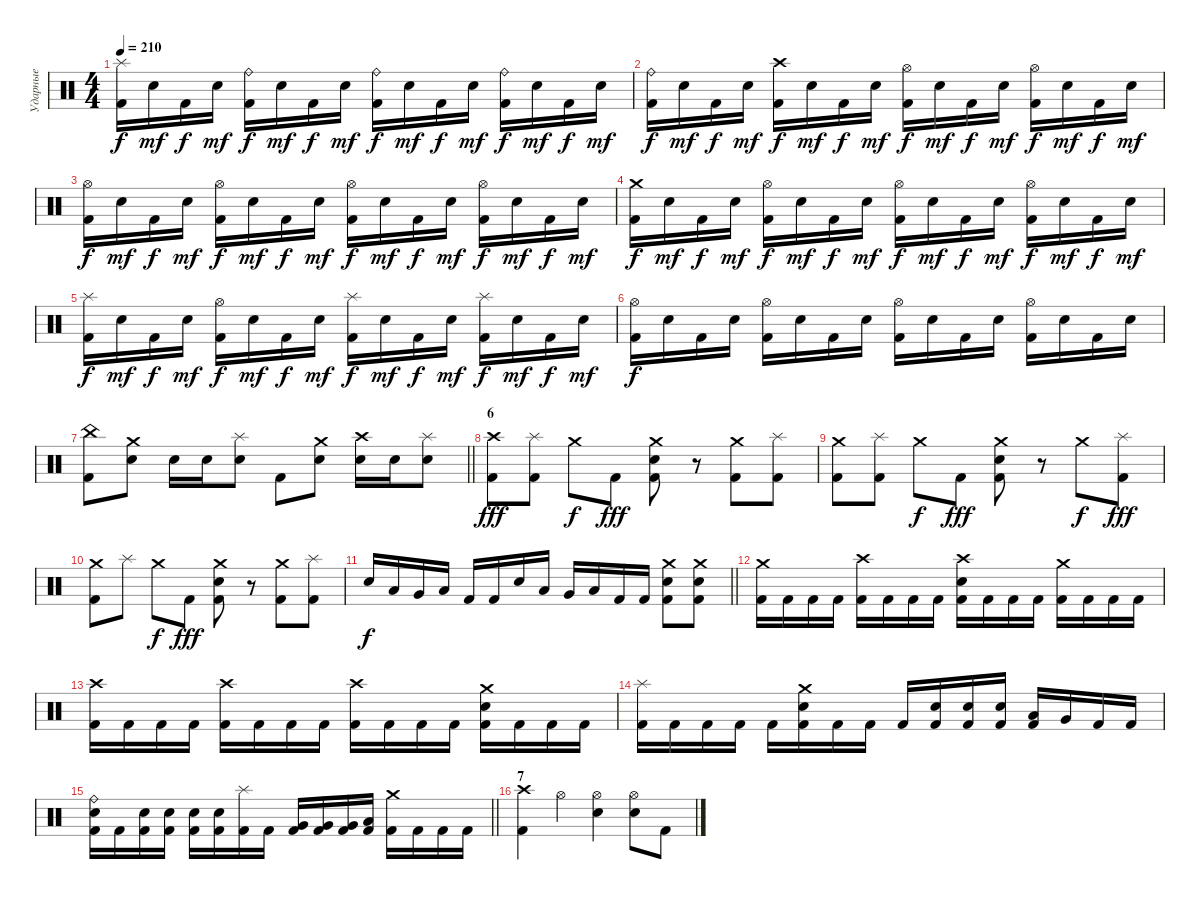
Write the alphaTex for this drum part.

\track ("Ударные" "Ударные") {instrument percussion}
\staff {score}
\articulation defaults
\ts (4 4)
\tempo 210
\clef neutral
\ks c
("Splash (hit)" "Kick (hit) 2").16{dy f} "Snare (hit) 2".16{dy mf} "Kick (hit) 2".16{dy f} "Snare (hit) 2".16{dy mf} ("Ride (bell)" "Kick (hit) 2").16{dy f} "Snare (hit) 2".16{dy mf} "Kick (hit) 2".16{dy f} "Snare (hit) 2".16{dy mf} ("Ride (bell)" "Kick (hit) 2").16{dy f} "Snare (hit) 2".16{dy mf} "Kick (hit) 2".16{dy f} "Snare (hit) 2".16{dy mf} ("Ride (bell)" "Kick (hit) 2").16{dy f} "Snare (hit) 2".16{dy mf} "Kick (hit) 2".16{dy f} "Snare (hit) 2".16{dy mf} |
("Ride (bell)" "Kick (hit) 2").16{dy f} "Snare (hit) 2".16{dy mf} "Kick (hit) 2".16{dy f} "Snare (hit) 2".16{dy mf} ("Crash high (hit)" "Kick (hit) 2").16{dy f} "Snare (hit) 2".16{dy mf} "Kick (hit) 2".16{dy f} "Snare (hit) 2".16{dy mf} ("Hi-Hat (open)" "Kick (hit) 2").16{dy f} "Snare (hit) 2".16{dy mf} "Kick (hit) 2".16{dy f} "Snare (hit) 2".16{dy mf} ("Hi-Hat (open)" "Kick (hit) 2").16{dy f} "Snare (hit) 2".16{dy mf} "Kick (hit) 2".16{dy f} "Snare (hit) 2".16{dy mf} |
("Hi-Hat (open)" "Kick (hit) 2").16{dy f} "Snare (hit) 2".16{dy mf} "Kick (hit) 2".16{dy f} "Snare (hit) 2".16{dy mf} ("Hi-Hat (open)" "Kick (hit) 2").16{dy f} "Snare (hit) 2".16{dy mf} "Kick (hit) 2".16{dy f} "Snare (hit) 2".16{dy mf} ("Hi-Hat (open)" "Kick (hit) 2").16{dy f} "Snare (hit) 2".16{dy mf} "Kick (hit) 2".16{dy f} "Snare (hit) 2".16{dy mf} ("Hi-Hat (open)" "Kick (hit) 2").16{dy f} "Snare (hit) 2".16{dy mf} "Kick (hit) 2".16{dy f} "Snare (hit) 2".16{dy mf} |
("Crash medium (hit)" "Kick (hit) 2").16{dy f} "Snare (hit) 2".16{dy mf} "Kick (hit) 2".16{dy f} "Snare (hit) 2".16{dy mf} ("Hi-Hat (open)" "Kick (hit) 2").16{dy f} "Snare (hit) 2".16{dy mf} "Kick (hit) 2".16{dy f} "Snare (hit) 2".16{dy mf} ("Hi-Hat (open)" "Kick (hit) 2").16{dy f} "Snare (hit) 2".16{dy mf} "Kick (hit) 2".16{dy f} "Snare (hit) 2".16{dy mf} ("Hi-Hat (open)" "Kick (hit) 2").16{dy f} "Snare (hit) 2".16{dy mf} "Kick (hit) 2".16{dy f} "Snare (hit) 2".16{dy mf} |
("Splash (hit)" "Kick (hit) 2").16{dy f} "Snare (hit) 2".16{dy mf} "Kick (hit) 2".16{dy f} "Snare (hit) 2".16{dy mf} ("Hi-Hat (open)" "Kick (hit) 2").16{dy f} "Snare (hit) 2".16{dy mf} "Kick (hit) 2".16{dy f} "Snare (hit) 2".16{dy mf} ("Splash (hit)" "Kick (hit) 2").16{dy f} "Snare (hit) 2".16{dy mf} "Kick (hit) 2".16{dy f} "Snare (hit) 2".16{dy mf} ("Splash (hit)" "Kick (hit) 2").16{dy f} "Snare (hit) 2".16{dy mf} "Kick (hit) 2".16{dy f} "Snare (hit) 2".16{dy mf} |
("Hi-Hat (open)" "Kick (hit) 2").16{dy f} "Snare (hit) 2".16 "Kick (hit) 2".16 "Snare (hit) 2".16 ("Hi-Hat (open)" "Kick (hit) 2").16 "Snare (hit) 2".16 "Kick (hit) 2".16 "Snare (hit) 2".16 ("Hi-Hat (open)" "Kick (hit) 2").16 "Snare (hit) 2".16 "Kick (hit) 2".16 "Snare (hit) 2".16 ("Hi-Hat (open)" "Kick (hit) 2").16 "Snare (hit) 2".16 "Kick (hit) 2".16 "Snare (hit) 2".16 |
\barLineRight lightlight
("China (hit)" "Kick (hit) 2").8 ("Crash medium (hit)" "Snare (hit) 2").8 "Snare (hit) 2".16 "Snare (hit) 2".16 ("Splash (hit)" "Snare (hit) 2").8 "Kick (hit) 2".8 ("Crash medium (hit)" "Snare (hit) 2").8 ("Crash high (hit)" "Snare (hit) 2").16 "Snare (hit) 2".16 ("Splash (hit)" "Snare (hit) 2").8 |
\section ("" "6")
("Crash high (hit)" "Kick (hit) 2").8{dy fff} ("Splash (hit)" "Kick (hit) 2").8 "Crash medium (hit)".8{dy f} "Kick (hit) 2".8{dy fff} ("Crash medium (hit)" "Snare (hit) 2" "Kick (hit) 2").8 r.8 ("Crash medium (hit)" "Kick (hit) 2").8 ("Splash (hit)" "Kick (hit) 2").8 |
("Crash medium (hit)" "Kick (hit) 2").8 ("Splash (hit)" "Kick (hit) 2").8 "Crash medium (hit)".8{dy f} "Kick (hit) 2".8{dy fff} ("Crash medium (hit)" "Snare (hit) 2" "Kick (hit) 2").8 r.8 "Crash medium (hit)".8{dy f} ("Splash (hit)" "Kick (hit) 2").8{dy fff} |
("Crash medium (hit)" "Kick (hit) 2").8 "Splash (hit)".8 "Crash medium (hit)".8{dy f} "Kick (hit) 2".8{dy fff} ("Crash medium (hit)" "Snare (hit) 2" "Kick (hit) 2").8 r.8 ("Crash medium (hit)" "Kick (hit) 2").8 ("Splash (hit)" "Kick (hit) 2").8 |
\barLineRight lightlight "Snare (hit) 2".16{dy f} "Low Tom (hit)".16 "Very Low Tom (hit)".16 "Low Floor Tom (hit)".16 "Kick (hit) 2".16 "Kick (hit) 2".16 "Snare (hit) 2".16 "Low Tom (hit)".16 "Very Low Tom (hit)".16 "Low Floor Tom (hit)".16 "Kick (hit) 2".16 "Kick (hit) 2".16
("Crash medium (hit)" "Snare (hit) 2" "Kick (hit) 2").8 ("Crash medium (hit)" "Snare (hit) 2" "Kick (hit) 2").8 |
("Crash medium (hit)" "Kick (hit) 2").16 "Kick (hit) 2".16 "Kick (hit) 2".16 "Kick (hit) 2".16 ("Crash high (hit)" "Kick (hit) 2").16 "Kick (hit) 2".16 "Kick (hit) 2".16 "Kick (hit) 2".16 ("Crash high (hit)" "Snare (hit) 2" "Kick (hit) 2").16 "Kick (hit) 2".16 "Kick (hit) 2".16 "Kick (hit) 2".16 ("Crash medium (hit)" "Kick (hit) 2").16 "Kick (hit) 2".16 "Kick (hit) 2".16 "Kick (hit) 2".16 |
("Crash high (hit)" "Kick (hit) 2").16 "Kick (hit) 2".16 "Kick (hit) 2".16 "Kick (hit) 2".16 ("Crash high (hit)" "Kick (hit) 2").16 "Kick (hit) 2".16 "Kick (hit) 2".16 "Kick (hit) 2".16 ("Crash high (hit)" "Kick (hit) 2").16 "Kick (hit) 2".16 "Kick (hit) 2".16 "Kick (hit) 2".16 ("Crash medium (hit)" "Snare (hit) 2" "Kick (hit) 2").16 "Kick (hit) 2".16 "Kick (hit) 2".16 "Kick (hit) 2".16 |
("Splash (hit)" "Kick (hit) 2").16 "Kick (hit) 2".16 "Kick (hit) 2".16 "Kick (hit) 2".16 "Kick (hit) 2".16 ("Crash medium (hit)" "Snare (hit) 2" "Kick (hit) 2").16 "Kick (hit) 2".16 "Kick (hit) 2".16 "Kick (hit) 2".16 ("Snare (hit) 2" "Kick (hit) 2").16 ("Snare (hit) 2" "Kick (hit) 2").16 ("Snare (hit) 2" "Kick (hit) 2").16 ("Low Floor Tom (hit)" "Kick (hit) 2").16 "Very Low Tom (hit)".16 "Kick (hit) 2".16 "Kick (hit) 2".16 |
\barLineRight lightlight
("Ride (bell)" "Snare (hit) 2" "Kick (hit) 2").16 "Kick (hit) 2".16 ("Snare (hit) 2" "Kick (hit) 2").16 ("Snare (hit) 2" "Kick (hit) 2").16 ("Snare (hit) 2" "Kick (hit) 2").16 ("Snare (hit) 2" "Kick (hit) 2").16 ("Splash (hit)" "Kick (hit) 2").16 "Kick (hit) 2".16 ("Very Low Tom (hit)" "Kick (hit) 2").16 ("Very Low Tom (hit)" "Kick (hit) 2").16 ("Very Low Tom (hit)" "Kick (hit) 2").16 ("Low Floor Tom (hit)" "Kick (hit) 2").16 ("Crash medium (hit)" "Kick (hit) 2").16 "Kick (hit) 2".16 "Kick (hit) 2".16 "Kick (hit) 2".16 |
\section ("" "7")
("Crash high (hit)" "Kick (hit) 2").4 "Hi-Hat (open)".4 ("Hi-Hat (open)" "Snare (hit) 2").4 ("Hi-Hat (open)" "Snare (hit) 2").8 "Kick (hit) 2".8
